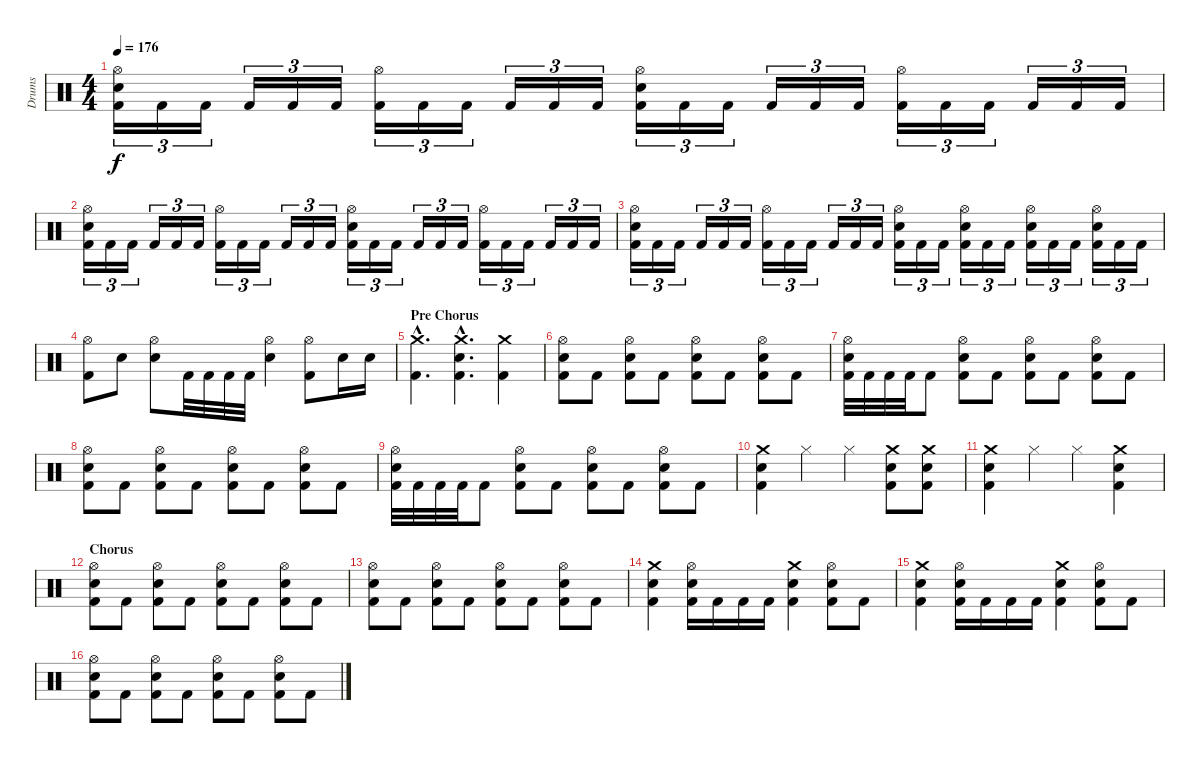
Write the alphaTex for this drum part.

\track ("Drums" "Drums") {instrument percussion}
\staff {score}
\articulation defaults
\ts (4 4)
\tempo 176
\clef neutral
\ks c
("Hi-Hat (open)" "Snare (hit) 2" "Kick (hit) 2").16{tu (3 2) dy f} "Kick (hit) 2".16{tu (3 2)} "Kick (hit) 2".16{tu (3 2)} "Kick (hit) 2".16{tu (3 2)} "Kick (hit) 2".16{tu (3 2)} "Kick (hit) 2".16{tu (3 2)} ("Hi-Hat (open)" "Kick (hit) 2").16{tu (3 2)} "Kick (hit) 2".16{tu (3 2)} "Kick (hit) 2".16{tu (3 2)} "Kick (hit) 2".16{tu (3 2)} "Kick (hit) 2".16{tu (3 2)} "Kick (hit) 2".16{tu (3 2)} ("Hi-Hat (open)" "Snare (hit) 2" "Kick (hit) 2").16{tu (3 2)} "Kick (hit) 2".16{tu (3 2)} "Kick (hit) 2".16{tu (3 2)} "Kick (hit) 2".16{tu (3 2)} "Kick (hit) 2".16{tu (3 2)} "Kick (hit) 2".16{tu (3 2)} ("Hi-Hat (open)" "Kick (hit) 2").16{tu (3 2)} "Kick (hit) 2".16{tu (3 2)} "Kick (hit) 2".16{tu (3 2)} "Kick (hit) 2".16{tu (3 2)} "Kick (hit) 2".16{tu (3 2)} "Kick (hit) 2".16{tu (3 2)} |
("Hi-Hat (open)" "Snare (hit) 2" "Kick (hit) 2").16{tu (3 2)} "Kick (hit) 2".16{tu (3 2)} "Kick (hit) 2".16{tu (3 2)} "Kick (hit) 2".16{tu (3 2)} "Kick (hit) 2".16{tu (3 2)} "Kick (hit) 2".16{tu (3 2)} ("Hi-Hat (open)" "Kick (hit) 2").16{tu (3 2)} "Kick (hit) 2".16{tu (3 2)} "Kick (hit) 2".16{tu (3 2)} "Kick (hit) 2".16{tu (3 2)} "Kick (hit) 2".16{tu (3 2)} "Kick (hit) 2".16{tu (3 2)} ("Hi-Hat (open)" "Snare (hit) 2" "Kick (hit) 2").16{tu (3 2)} "Kick (hit) 2".16{tu (3 2)} "Kick (hit) 2".16{tu (3 2)} "Kick (hit) 2".16{tu (3 2)} "Kick (hit) 2".16{tu (3 2)} "Kick (hit) 2".16{tu (3 2)} ("Hi-Hat (open)" "Kick (hit) 2").16{tu (3 2)} "Kick (hit) 2".16{tu (3 2)} "Kick (hit) 2".16{tu (3 2)} "Kick (hit) 2".16{tu (3 2)} "Kick (hit) 2".16{tu (3 2)} "Kick (hit) 2".16{tu (3 2)} |
("Hi-Hat (open)" "Snare (hit) 2" "Kick (hit) 2").16{tu (3 2)} "Kick (hit) 2".16{tu (3 2)} "Kick (hit) 2".16{tu (3 2)} "Kick (hit) 2".16{tu (3 2)} "Kick (hit) 2".16{tu (3 2)} "Kick (hit) 2".16{tu (3 2)} ("Hi-Hat (open)" "Kick (hit) 2").16{tu (3 2)} "Kick (hit) 2".16{tu (3 2)} "Kick (hit) 2".16{tu (3 2)} "Kick (hit) 2".16{tu (3 2)} "Kick (hit) 2".16{tu (3 2)} "Kick (hit) 2".16{tu (3 2)} ("Hi-Hat (open)" "Snare (hit) 2" "Kick (hit) 2").16{tu (3 2)} "Kick (hit) 2".16{tu (3 2)} "Kick (hit) 2".16{tu (3 2)} ("Hi-Hat (open)" "Snare (hit) 2" "Kick (hit) 2").16{tu (3 2)} "Kick (hit) 2".16{tu (3 2)} "Kick (hit) 2".16{tu (3 2)} ("Hi-Hat (open)" "Snare (hit) 2" "Kick (hit) 2").16{tu (3 2)} "Kick (hit) 2".16{tu (3 2)} "Kick (hit) 2".16{tu (3 2)} ("Hi-Hat (open)" "Snare (hit) 2" "Kick (hit) 2").16{tu (3 2)} "Kick (hit) 2".16{tu (3 2)} "Kick (hit) 2".16{tu (3 2)} |
("Hi-Hat (open)" "Kick (hit) 2").8 "Snare (hit) 2".8 ("Hi-Hat (open)" "Snare (hit) 2").8 "Kick (hit) 2".32 "Kick (hit) 2".32 "Kick (hit) 2".32 "Kick (hit) 2".32 ("Hi-Hat (open)" "Snare (hit) 2").4 ("Hi-Hat (open)" "Kick (hit) 2").8 "Snare (hit) 2".16 "Snare (hit) 2".16 |
\section ("" "Pre Chorus")
("Crash medium (hit)"{hac} "Kick (hit) 2"{hac}).4{d} ("Crash medium (hit)"{hac} "Snare (hit) 2"{hac} "Kick (hit) 2"{hac}).4{d} ("Crash medium (hit)" "Kick (hit) 2").4 |
("Hi-Hat (open)" "Snare (hit) 2" "Kick (hit) 2").8 "Kick (hit) 2".8 ("Hi-Hat (open)" "Snare (hit) 2" "Kick (hit) 2").8 "Kick (hit) 2".8 ("Hi-Hat (open)" "Snare (hit) 2" "Kick (hit) 2").8 "Kick (hit) 2".8 ("Hi-Hat (open)" "Snare (hit) 2" "Kick (hit) 2").8 "Kick (hit) 2".8 |
("Hi-Hat (open)" "Snare (hit) 2" "Kick (hit) 2").32 "Kick (hit) 2".32 "Kick (hit) 2".32 "Kick (hit) 2".32 "Kick (hit) 2".8 ("Hi-Hat (open)" "Snare (hit) 2" "Kick (hit) 2").8 "Kick (hit) 2".8 ("Hi-Hat (open)" "Snare (hit) 2" "Kick (hit) 2").8 "Kick (hit) 2".8 ("Hi-Hat (open)" "Snare (hit) 2" "Kick (hit) 2").8 "Kick (hit) 2".8 |
("Hi-Hat (open)" "Snare (hit) 2" "Kick (hit) 2").8 "Kick (hit) 2".8 ("Hi-Hat (open)" "Snare (hit) 2" "Kick (hit) 2").8 "Kick (hit) 2".8 ("Hi-Hat (open)" "Snare (hit) 2" "Kick (hit) 2").8 "Kick (hit) 2".8 ("Hi-Hat (open)" "Snare (hit) 2" "Kick (hit) 2").8 "Kick (hit) 2".8 |
("Hi-Hat (open)" "Snare (hit) 2" "Kick (hit) 2").32 "Kick (hit) 2".32 "Kick (hit) 2".32 "Kick (hit) 2".32 "Kick (hit) 2".8 ("Hi-Hat (open)" "Snare (hit) 2" "Kick (hit) 2").8 "Kick (hit) 2".8 ("Hi-Hat (open)" "Snare (hit) 2" "Kick (hit) 2").8 "Kick (hit) 2".8 ("Hi-Hat (open)" "Snare (hit) 2" "Kick (hit) 2").8 "Kick (hit) 2".8 |
("Crash medium (hit)" "Snare (hit) 2" "Kick (hit) 2").4 "Hi-Hat (closed)".4 "Hi-Hat (closed)".4 ("Crash medium (hit)" "Snare (hit) 2" "Kick (hit) 2").8 ("Crash medium (hit)" "Snare (hit) 2" "Kick (hit) 2").8 |
("Crash medium (hit)" "Snare (hit) 2" "Kick (hit) 2").4 "Hi-Hat (closed)".4 "Hi-Hat (closed)".4 ("Crash medium (hit)" "Snare (hit) 2" "Kick (hit) 2").4 |
\section ("" "Chorus")
("Hi-Hat (open)" "Snare (hit) 2" "Kick (hit) 2").8 "Kick (hit) 2".8 ("Hi-Hat (open)" "Snare (hit) 2" "Kick (hit) 2").8 "Kick (hit) 2".8 ("Hi-Hat (open)" "Snare (hit) 2" "Kick (hit) 2").8 "Kick (hit) 2".8 ("Hi-Hat (open)" "Snare (hit) 2" "Kick (hit) 2").8 "Kick (hit) 2".8 |
("Hi-Hat (open)" "Snare (hit) 2" "Kick (hit) 2").8 "Kick (hit) 2".8 ("Hi-Hat (open)" "Snare (hit) 2" "Kick (hit) 2").8 "Kick (hit) 2".8 ("Hi-Hat (open)" "Snare (hit) 2" "Kick (hit) 2").8 "Kick (hit) 2".8 ("Hi-Hat (open)" "Snare (hit) 2" "Kick (hit) 2").8 "Kick (hit) 2".8 |
("Crash medium (hit)" "Snare (hit) 2" "Kick (hit) 2").4 ("Hi-Hat (open)" "Snare (hit) 2" "Kick (hit) 2").16 "Kick (hit) 2".16 "Kick (hit) 2".16 "Kick (hit) 2".16 ("Crash medium (hit)" "Snare (hit) 2" "Kick (hit) 2").4 ("Hi-Hat (open)" "Snare (hit) 2" "Kick (hit) 2").8 "Kick (hit) 2".8 |
("Crash medium (hit)" "Snare (hit) 2" "Kick (hit) 2").4 ("Hi-Hat (open)" "Snare (hit) 2" "Kick (hit) 2").16 "Kick (hit) 2".16 "Kick (hit) 2".16 "Kick (hit) 2".16 ("Crash medium (hit)" "Snare (hit) 2" "Kick (hit) 2").4 ("Hi-Hat (open)" "Snare (hit) 2" "Kick (hit) 2").8 "Kick (hit) 2".8 |
("Hi-Hat (open)" "Snare (hit) 2" "Kick (hit) 2").8 "Kick (hit) 2".8 ("Hi-Hat (open)" "Snare (hit) 2" "Kick (hit) 2").8 "Kick (hit) 2".8 ("Hi-Hat (open)" "Snare (hit) 2" "Kick (hit) 2").8 "Kick (hit) 2".8 ("Hi-Hat (open)" "Snare (hit) 2" "Kick (hit) 2").8 "Kick (hit) 2".8
